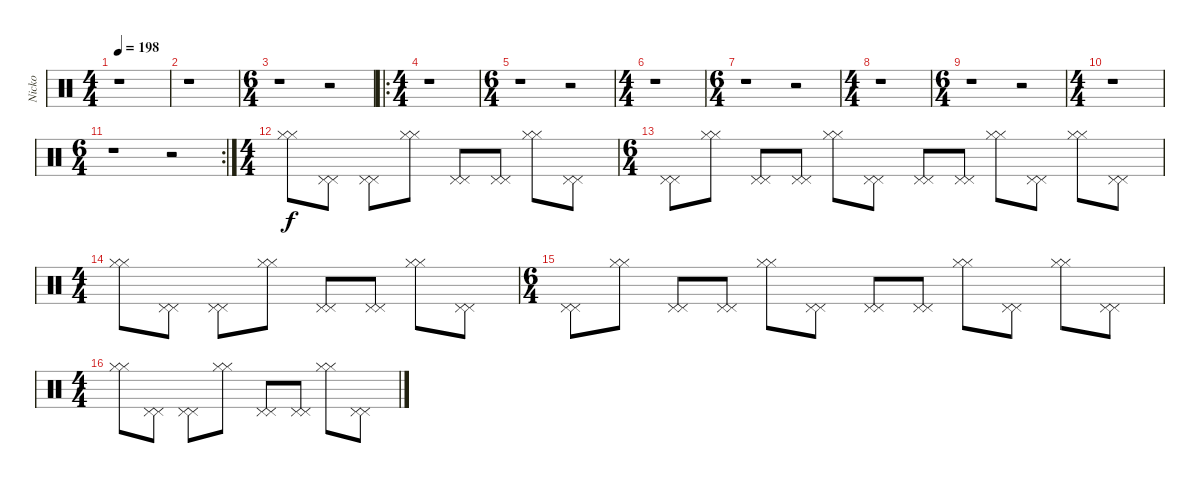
\track ("Nicko" "Nicko") {instrument percussion}
\staff {score}
\articulation defaults
\ts (4 4)
\tempo 198
\clef neutral
\ks c
r.1{dy f} |
r.1 |
\ts (6 4)
r.1 r.2 |
\ro
\ts (4 4)
r.1 |
\ts (6 4)
r.1 r.2 |
\ts (4 4)
r.1 |
\ts (6 4)
r.1 r.2 |
\ts (4 4)
r.1 |
\ts (6 4)
r.1 r.2 |
\ts (4 4)
r.1 |
\rc 2
\ts (6 4)
r.1 r.2 |
\ts (4 4)
("Hi-Hat (closed)" "Hi-Hat (closed)").8 ("Pedal Hi-Hat (hit)" "Pedal Hi-Hat (hit)").8 ("Pedal Hi-Hat (hit)" "Pedal Hi-Hat (hit)").8 ("Hi-Hat (closed)" "Hi-Hat (closed)").8 ("Pedal Hi-Hat (hit)" "Pedal Hi-Hat (hit)").8 ("Pedal Hi-Hat (hit)" "Pedal Hi-Hat (hit)").8 ("Hi-Hat (closed)" "Hi-Hat (closed)").8 ("Pedal Hi-Hat (hit)" "Pedal Hi-Hat (hit)").8 |
\ts (6 4)
("Pedal Hi-Hat (hit)" "Pedal Hi-Hat (hit)").8 ("Hi-Hat (closed)" "Hi-Hat (closed)").8 ("Pedal Hi-Hat (hit)" "Pedal Hi-Hat (hit)").8 ("Pedal Hi-Hat (hit)" "Pedal Hi-Hat (hit)").8 ("Hi-Hat (closed)" "Hi-Hat (closed)").8 ("Pedal Hi-Hat (hit)" "Pedal Hi-Hat (hit)").8 ("Pedal Hi-Hat (hit)" "Pedal Hi-Hat (hit)").8 ("Pedal Hi-Hat (hit)" "Pedal Hi-Hat (hit)").8 ("Hi-Hat (closed)" "Hi-Hat (closed)").8 ("Pedal Hi-Hat (hit)" "Pedal Hi-Hat (hit)").8 ("Hi-Hat (closed)" "Hi-Hat (closed)").8 ("Pedal Hi-Hat (hit)" "Pedal Hi-Hat (hit)").8 |
\ts (4 4)
("Hi-Hat (closed)" "Hi-Hat (closed)").8 ("Pedal Hi-Hat (hit)" "Pedal Hi-Hat (hit)").8 ("Pedal Hi-Hat (hit)" "Pedal Hi-Hat (hit)").8 ("Hi-Hat (closed)" "Hi-Hat (closed)").8 ("Pedal Hi-Hat (hit)" "Pedal Hi-Hat (hit)").8 ("Pedal Hi-Hat (hit)" "Pedal Hi-Hat (hit)").8 ("Hi-Hat (closed)" "Hi-Hat (closed)").8 ("Pedal Hi-Hat (hit)" "Pedal Hi-Hat (hit)").8 |
\ts (6 4)
("Pedal Hi-Hat (hit)" "Pedal Hi-Hat (hit)").8 ("Hi-Hat (closed)" "Hi-Hat (closed)").8 ("Pedal Hi-Hat (hit)" "Pedal Hi-Hat (hit)").8 ("Pedal Hi-Hat (hit)" "Pedal Hi-Hat (hit)").8 ("Hi-Hat (closed)" "Hi-Hat (closed)").8 ("Pedal Hi-Hat (hit)" "Pedal Hi-Hat (hit)").8 ("Pedal Hi-Hat (hit)" "Pedal Hi-Hat (hit)").8 ("Pedal Hi-Hat (hit)" "Pedal Hi-Hat (hit)").8 ("Hi-Hat (closed)" "Hi-Hat (closed)").8 ("Pedal Hi-Hat (hit)" "Pedal Hi-Hat (hit)").8 ("Hi-Hat (closed)" "Hi-Hat (closed)").8 ("Pedal Hi-Hat (hit)" "Pedal Hi-Hat (hit)").8 |
\ts (4 4)
("Hi-Hat (closed)" "Hi-Hat (closed)").8 ("Pedal Hi-Hat (hit)" "Pedal Hi-Hat (hit)").8 ("Pedal Hi-Hat (hit)" "Pedal Hi-Hat (hit)").8 ("Hi-Hat (closed)" "Hi-Hat (closed)").8 ("Pedal Hi-Hat (hit)" "Pedal Hi-Hat (hit)").8 ("Pedal Hi-Hat (hit)" "Pedal Hi-Hat (hit)").8 ("Hi-Hat (closed)" "Hi-Hat (closed)").8 ("Pedal Hi-Hat (hit)" "Pedal Hi-Hat (hit)").8
